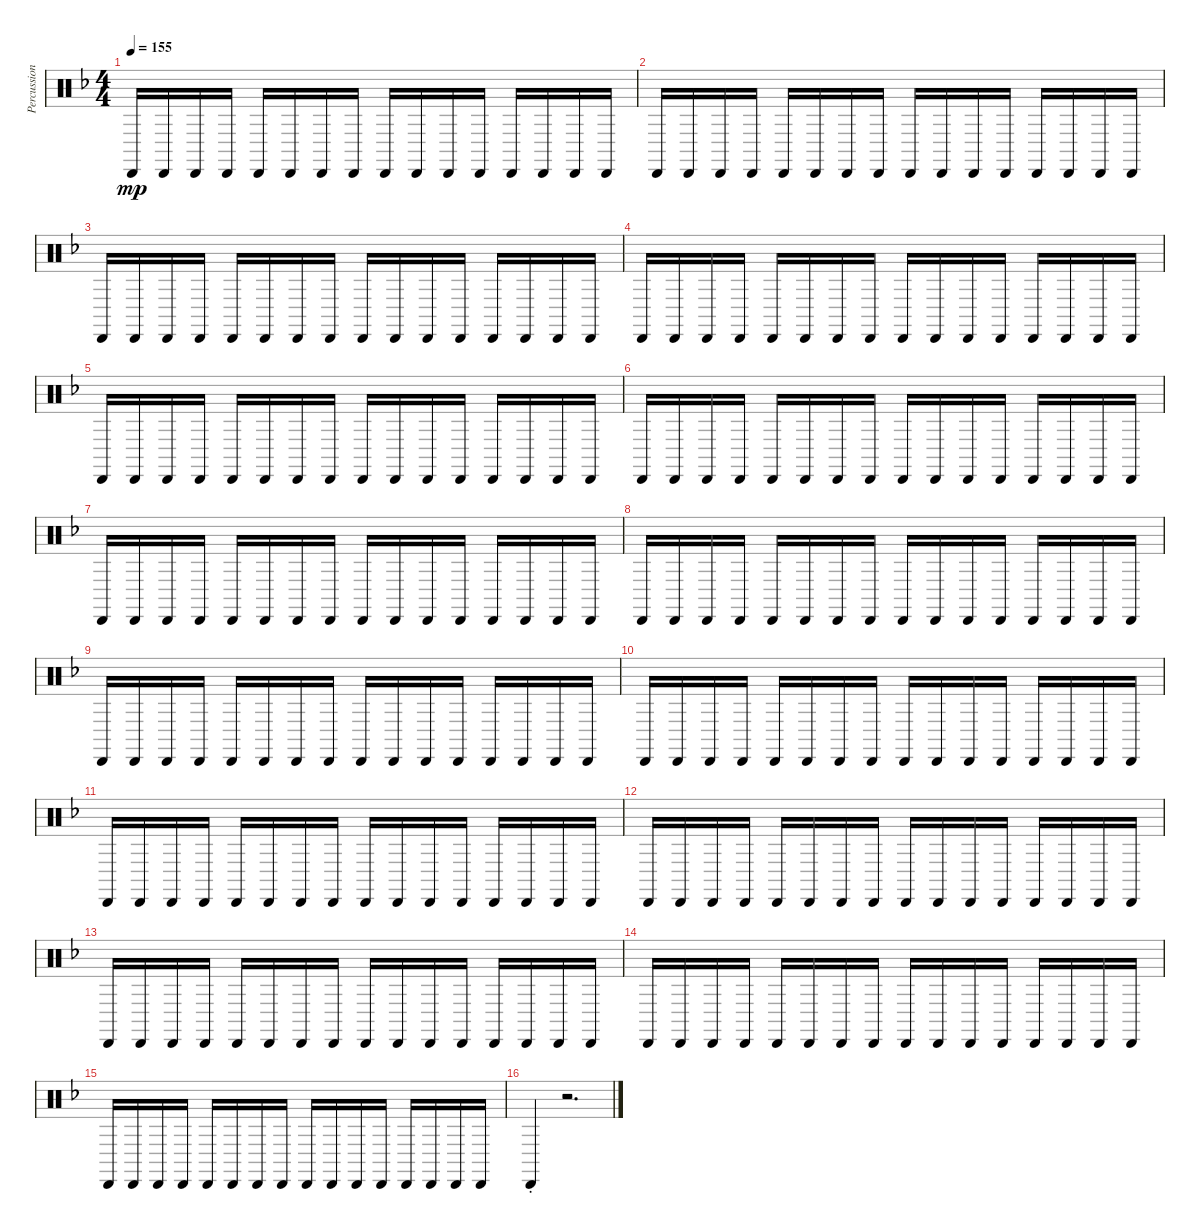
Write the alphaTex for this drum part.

\track ("Percussion" "Percussion") {instrument percussion}
\staff {score}
\articulation defaults
\ts (4 4)
\tempo 155
\clef neutral
\ks dminor "Cabasa (hit)".16{dy mp} "Cabasa (hit)".16 "Cabasa (hit)".16 "Cabasa (hit)".16 "Cabasa (hit)".16 "Cabasa (hit)".16 "Cabasa (hit)".16 "Cabasa (hit)".16 "Cabasa (hit)".16 "Cabasa (hit)".16 "Cabasa (hit)".16 "Cabasa (hit)".16 "Cabasa (hit)".16 "Cabasa (hit)".16 "Cabasa (hit)".16 "Cabasa (hit)".16
|
"Cabasa (hit)".16 "Cabasa (hit)".16 "Cabasa (hit)".16 "Cabasa (hit)".16 "Cabasa (hit)".16 "Cabasa (hit)".16 "Cabasa (hit)".16 "Cabasa (hit)".16 "Cabasa (hit)".16 "Cabasa (hit)".16 "Cabasa (hit)".16 "Cabasa (hit)".16 "Cabasa (hit)".16 "Cabasa (hit)".16 "Cabasa (hit)".16 "Cabasa (hit)".16 |
"Cabasa (hit)".16 "Cabasa (hit)".16 "Cabasa (hit)".16 "Cabasa (hit)".16 "Cabasa (hit)".16 "Cabasa (hit)".16 "Cabasa (hit)".16 "Cabasa (hit)".16 "Cabasa (hit)".16 "Cabasa (hit)".16 "Cabasa (hit)".16 "Cabasa (hit)".16 "Cabasa (hit)".16 "Cabasa (hit)".16 "Cabasa (hit)".16 "Cabasa (hit)".16 |
"Cabasa (hit)".16 "Cabasa (hit)".16 "Cabasa (hit)".16 "Cabasa (hit)".16 "Cabasa (hit)".16 "Cabasa (hit)".16 "Cabasa (hit)".16 "Cabasa (hit)".16 "Cabasa (hit)".16 "Cabasa (hit)".16 "Cabasa (hit)".16 "Cabasa (hit)".16 "Cabasa (hit)".16 "Cabasa (hit)".16 "Cabasa (hit)".16 "Cabasa (hit)".16 |
"Cabasa (hit)".16 "Cabasa (hit)".16 "Cabasa (hit)".16 "Cabasa (hit)".16 "Cabasa (hit)".16 "Cabasa (hit)".16 "Cabasa (hit)".16 "Cabasa (hit)".16 "Cabasa (hit)".16 "Cabasa (hit)".16 "Cabasa (hit)".16 "Cabasa (hit)".16 "Cabasa (hit)".16 "Cabasa (hit)".16 "Cabasa (hit)".16 "Cabasa (hit)".16 |
"Cabasa (hit)".16 "Cabasa (hit)".16 "Cabasa (hit)".16 "Cabasa (hit)".16 "Cabasa (hit)".16 "Cabasa (hit)".16 "Cabasa (hit)".16 "Cabasa (hit)".16 "Cabasa (hit)".16 "Cabasa (hit)".16 "Cabasa (hit)".16 "Cabasa (hit)".16 "Cabasa (hit)".16 "Cabasa (hit)".16 "Cabasa (hit)".16 "Cabasa (hit)".16 |
"Cabasa (hit)".16 "Cabasa (hit)".16 "Cabasa (hit)".16 "Cabasa (hit)".16 "Cabasa (hit)".16 "Cabasa (hit)".16 "Cabasa (hit)".16 "Cabasa (hit)".16 "Cabasa (hit)".16 "Cabasa (hit)".16 "Cabasa (hit)".16 "Cabasa (hit)".16 "Cabasa (hit)".16 "Cabasa (hit)".16 "Cabasa (hit)".16 "Cabasa (hit)".16 |
"Cabasa (hit)".16 "Cabasa (hit)".16 "Cabasa (hit)".16 "Cabasa (hit)".16 "Cabasa (hit)".16 "Cabasa (hit)".16 "Cabasa (hit)".16 "Cabasa (hit)".16 "Cabasa (hit)".16 "Cabasa (hit)".16 "Cabasa (hit)".16 "Cabasa (hit)".16 "Cabasa (hit)".16 "Cabasa (hit)".16 "Cabasa (hit)".16 "Cabasa (hit)".16 |
"Cabasa (hit)".16 "Cabasa (hit)".16 "Cabasa (hit)".16 "Cabasa (hit)".16 "Cabasa (hit)".16 "Cabasa (hit)".16 "Cabasa (hit)".16 "Cabasa (hit)".16 "Cabasa (hit)".16 "Cabasa (hit)".16 "Cabasa (hit)".16 "Cabasa (hit)".16 "Cabasa (hit)".16 "Cabasa (hit)".16 "Cabasa (hit)".16 "Cabasa (hit)".16 |
"Cabasa (hit)".16 "Cabasa (hit)".16 "Cabasa (hit)".16 "Cabasa (hit)".16 "Cabasa (hit)".16 "Cabasa (hit)".16 "Cabasa (hit)".16 "Cabasa (hit)".16 "Cabasa (hit)".16 "Cabasa (hit)".16 "Cabasa (hit)".16 "Cabasa (hit)".16 "Cabasa (hit)".16 "Cabasa (hit)".16 "Cabasa (hit)".16 "Cabasa (hit)".16 |
"Cabasa (hit)".16 "Cabasa (hit)".16 "Cabasa (hit)".16 "Cabasa (hit)".16 "Cabasa (hit)".16 "Cabasa (hit)".16 "Cabasa (hit)".16 "Cabasa (hit)".16 "Cabasa (hit)".16 "Cabasa (hit)".16 "Cabasa (hit)".16 "Cabasa (hit)".16 "Cabasa (hit)".16 "Cabasa (hit)".16 "Cabasa (hit)".16 "Cabasa (hit)".16 |
"Cabasa (hit)".16 "Cabasa (hit)".16 "Cabasa (hit)".16 "Cabasa (hit)".16 "Cabasa (hit)".16 "Cabasa (hit)".16 "Cabasa (hit)".16 "Cabasa (hit)".16 "Cabasa (hit)".16 "Cabasa (hit)".16 "Cabasa (hit)".16 "Cabasa (hit)".16 "Cabasa (hit)".16 "Cabasa (hit)".16 "Cabasa (hit)".16 "Cabasa (hit)".16 |
"Cabasa (hit)".16 "Cabasa (hit)".16 "Cabasa (hit)".16 "Cabasa (hit)".16 "Cabasa (hit)".16 "Cabasa (hit)".16 "Cabasa (hit)".16 "Cabasa (hit)".16 "Cabasa (hit)".16 "Cabasa (hit)".16 "Cabasa (hit)".16 "Cabasa (hit)".16 "Cabasa (hit)".16 "Cabasa (hit)".16 "Cabasa (hit)".16 "Cabasa (hit)".16 |
"Cabasa (hit)".16 "Cabasa (hit)".16 "Cabasa (hit)".16 "Cabasa (hit)".16 "Cabasa (hit)".16 "Cabasa (hit)".16 "Cabasa (hit)".16 "Cabasa (hit)".16 "Cabasa (hit)".16 "Cabasa (hit)".16 "Cabasa (hit)".16 "Cabasa (hit)".16 "Cabasa (hit)".16 "Cabasa (hit)".16 "Cabasa (hit)".16 "Cabasa (hit)".16 |
"Cabasa (hit)".16 "Cabasa (hit)".16 "Cabasa (hit)".16 "Cabasa (hit)".16 "Cabasa (hit)".16 "Cabasa (hit)".16 "Cabasa (hit)".16 "Cabasa (hit)".16 "Cabasa (hit)".16 "Cabasa (hit)".16 "Cabasa (hit)".16 "Cabasa (hit)".16 "Cabasa (hit)".16 "Cabasa (hit)".16 "Cabasa (hit)".16 "Cabasa (hit)".16 |
"Cabasa (hit)"{st}.4 r.2{d}
